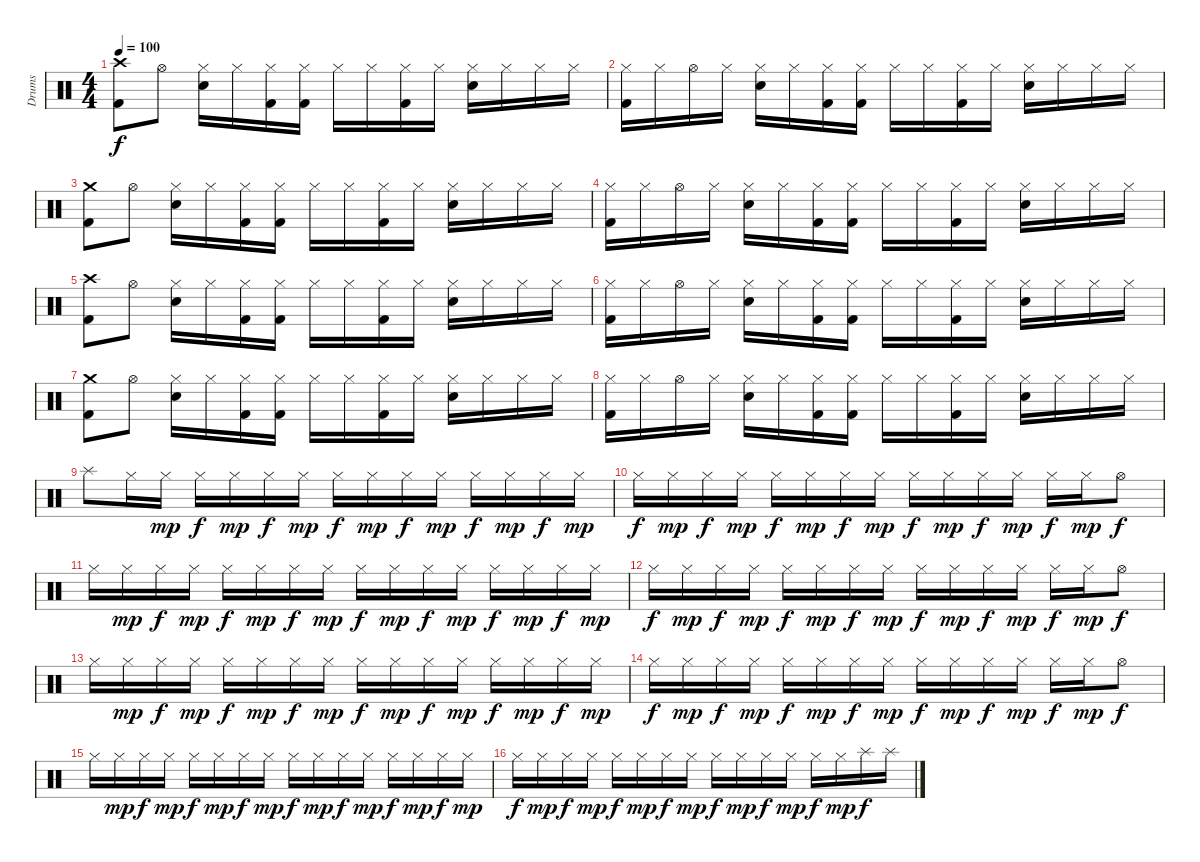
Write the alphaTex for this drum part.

\track ("Drums" "Drums") {instrument percussion}
\staff {score}
\articulation defaults
\ts (4 4)
\tempo 100
\clef neutral
\ks c
("Crash high (hit)" "Kick (hit) 2").8{dy f} "Hi-Hat (open)".8 ("Hi-Hat (closed)" "Snare (hit) 2").16 "Hi-Hat (closed)".16 ("Hi-Hat (closed)" "Kick (hit) 2").16 ("Hi-Hat (closed)" "Kick (hit) 2").16 "Hi-Hat (closed)".16 "Hi-Hat (closed)".16 ("Hi-Hat (closed)" "Kick (hit) 2").16 "Hi-Hat (closed)".16 ("Hi-Hat (closed)" "Snare (hit) 2").16 "Hi-Hat (closed)".16 "Hi-Hat (closed)".16 "Hi-Hat (closed)".16 |
("Hi-Hat (closed)" "Kick (hit) 2").16 "Hi-Hat (closed)".16 "Hi-Hat (open)".16 "Hi-Hat (closed)".16 ("Hi-Hat (closed)" "Snare (hit) 2").16 "Hi-Hat (closed)".16 ("Hi-Hat (closed)" "Kick (hit) 2").16 ("Hi-Hat (closed)" "Kick (hit) 2").16 "Hi-Hat (closed)".16 "Hi-Hat (closed)".16 ("Hi-Hat (closed)" "Kick (hit) 2").16 "Hi-Hat (closed)".16 ("Hi-Hat (closed)" "Snare (hit) 2").16 "Hi-Hat (closed)".16 "Hi-Hat (closed)".16 "Hi-Hat (closed)".16 |
("Crash medium (hit)" "Kick (hit) 2").8 "Hi-Hat (open)".8 ("Hi-Hat (closed)" "Snare (hit) 2").16 "Hi-Hat (closed)".16 ("Hi-Hat (closed)" "Kick (hit) 2").16 ("Hi-Hat (closed)" "Kick (hit) 2").16 "Hi-Hat (closed)".16 "Hi-Hat (closed)".16 ("Hi-Hat (closed)" "Kick (hit) 2").16 "Hi-Hat (closed)".16 ("Hi-Hat (closed)" "Snare (hit) 2").16 "Hi-Hat (closed)".16 "Hi-Hat (closed)".16 "Hi-Hat (closed)".16 |
("Hi-Hat (closed)" "Kick (hit) 2").16 "Hi-Hat (closed)".16 "Hi-Hat (open)".16 "Hi-Hat (closed)".16 ("Hi-Hat (closed)" "Snare (hit) 2").16 "Hi-Hat (closed)".16 ("Hi-Hat (closed)" "Kick (hit) 2").16 ("Hi-Hat (closed)" "Kick (hit) 2").16 "Hi-Hat (closed)".16 "Hi-Hat (closed)".16 ("Hi-Hat (closed)" "Kick (hit) 2").16 "Hi-Hat (closed)".16 ("Hi-Hat (closed)" "Snare (hit) 2").16 "Hi-Hat (closed)".16 "Hi-Hat (closed)".16 "Hi-Hat (closed)".16 |
("Crash high (hit)" "Kick (hit) 2").8 "Hi-Hat (open)".8 ("Hi-Hat (closed)" "Snare (hit) 2").16 "Hi-Hat (closed)".16 ("Hi-Hat (closed)" "Kick (hit) 2").16 ("Hi-Hat (closed)" "Kick (hit) 2").16 "Hi-Hat (closed)".16 "Hi-Hat (closed)".16 ("Hi-Hat (closed)" "Kick (hit) 2").16 "Hi-Hat (closed)".16 ("Hi-Hat (closed)" "Snare (hit) 2").16 "Hi-Hat (closed)".16 "Hi-Hat (closed)".16 "Hi-Hat (closed)".16 |
("Hi-Hat (closed)" "Kick (hit) 2").16 "Hi-Hat (closed)".16 "Hi-Hat (open)".16 "Hi-Hat (closed)".16 ("Hi-Hat (closed)" "Snare (hit) 2").16 "Hi-Hat (closed)".16 ("Hi-Hat (closed)" "Kick (hit) 2").16 ("Hi-Hat (closed)" "Kick (hit) 2").16 "Hi-Hat (closed)".16 "Hi-Hat (closed)".16 ("Hi-Hat (closed)" "Kick (hit) 2").16 "Hi-Hat (closed)".16 ("Hi-Hat (closed)" "Snare (hit) 2").16 "Hi-Hat (closed)".16 "Hi-Hat (closed)".16 "Hi-Hat (closed)".16 |
("Crash medium (hit)" "Kick (hit) 2").8 "Hi-Hat (open)".8 ("Hi-Hat (closed)" "Snare (hit) 2").16 "Hi-Hat (closed)".16 ("Hi-Hat (closed)" "Kick (hit) 2").16 ("Hi-Hat (closed)" "Kick (hit) 2").16 "Hi-Hat (closed)".16 "Hi-Hat (closed)".16 ("Hi-Hat (closed)" "Kick (hit) 2").16 "Hi-Hat (closed)".16 ("Hi-Hat (closed)" "Snare (hit) 2").16 "Hi-Hat (closed)".16 "Hi-Hat (closed)".16 "Hi-Hat (closed)".16 |
("Hi-Hat (closed)" "Kick (hit) 2").16 "Hi-Hat (closed)".16 "Hi-Hat (open)".16 "Hi-Hat (closed)".16 ("Hi-Hat (closed)" "Snare (hit) 2").16 "Hi-Hat (closed)".16 ("Hi-Hat (closed)" "Kick (hit) 2").16 ("Hi-Hat (closed)" "Kick (hit) 2").16 "Hi-Hat (closed)".16 "Hi-Hat (closed)".16 ("Hi-Hat (closed)" "Kick (hit) 2").16 "Hi-Hat (closed)".16 ("Hi-Hat (closed)" "Snare (hit) 2").16 "Hi-Hat (closed)".16 "Hi-Hat (closed)".16 "Hi-Hat (closed)".16 |
"Splash (hit)".8 "Hi-Hat (closed)".16 "Hi-Hat (closed)".16{dy mp} "Hi-Hat (closed)".16{dy f} "Hi-Hat (closed)".16{dy mp} "Hi-Hat (closed)".16{dy f} "Hi-Hat (closed)".16{dy mp} "Hi-Hat (closed)".16{dy f} "Hi-Hat (closed)".16{dy mp} "Hi-Hat (closed)".16{dy f} "Hi-Hat (closed)".16{dy mp} "Hi-Hat (closed)".16{dy f} "Hi-Hat (closed)".16{dy mp} "Hi-Hat (closed)".16{dy f} "Hi-Hat (closed)".16{dy mp} |
"Hi-Hat (closed)".16{dy f} "Hi-Hat (closed)".16{dy mp} "Hi-Hat (closed)".16{dy f} "Hi-Hat (closed)".16{dy mp} "Hi-Hat (closed)".16{dy f} "Hi-Hat (closed)".16{dy mp} "Hi-Hat (closed)".16{dy f} "Hi-Hat (closed)".16{dy mp} "Hi-Hat (closed)".16{dy f} "Hi-Hat (closed)".16{dy mp} "Hi-Hat (closed)".16{dy f} "Hi-Hat (closed)".16{dy mp} "Hi-Hat (closed)".16{dy f} "Hi-Hat (closed)".16{dy mp} "Hi-Hat (open)".8{dy f} |
"Hi-Hat (closed)".16 "Hi-Hat (closed)".16{dy mp} "Hi-Hat (closed)".16{dy f} "Hi-Hat (closed)".16{dy mp} "Hi-Hat (closed)".16{dy f} "Hi-Hat (closed)".16{dy mp} "Hi-Hat (closed)".16{dy f} "Hi-Hat (closed)".16{dy mp} "Hi-Hat (closed)".16{dy f} "Hi-Hat (closed)".16{dy mp} "Hi-Hat (closed)".16{dy f} "Hi-Hat (closed)".16{dy mp} "Hi-Hat (closed)".16{dy f} "Hi-Hat (closed)".16{dy mp} "Hi-Hat (closed)".16{dy f} "Hi-Hat (closed)".16{dy mp} |
"Hi-Hat (closed)".16{dy f} "Hi-Hat (closed)".16{dy mp} "Hi-Hat (closed)".16{dy f} "Hi-Hat (closed)".16{dy mp} "Hi-Hat (closed)".16{dy f} "Hi-Hat (closed)".16{dy mp} "Hi-Hat (closed)".16{dy f} "Hi-Hat (closed)".16{dy mp} "Hi-Hat (closed)".16{dy f} "Hi-Hat (closed)".16{dy mp} "Hi-Hat (closed)".16{dy f} "Hi-Hat (closed)".16{dy mp} "Hi-Hat (closed)".16{dy f} "Hi-Hat (closed)".16{dy mp} "Hi-Hat (open)".8{dy f} |
"Hi-Hat (closed)".16 "Hi-Hat (closed)".16{dy mp} "Hi-Hat (closed)".16{dy f} "Hi-Hat (closed)".16{dy mp} "Hi-Hat (closed)".16{dy f} "Hi-Hat (closed)".16{dy mp} "Hi-Hat (closed)".16{dy f} "Hi-Hat (closed)".16{dy mp} "Hi-Hat (closed)".16{dy f} "Hi-Hat (closed)".16{dy mp} "Hi-Hat (closed)".16{dy f} "Hi-Hat (closed)".16{dy mp} "Hi-Hat (closed)".16{dy f} "Hi-Hat (closed)".16{dy mp} "Hi-Hat (closed)".16{dy f} "Hi-Hat (closed)".16{dy mp} |
"Hi-Hat (closed)".16{dy f} "Hi-Hat (closed)".16{dy mp} "Hi-Hat (closed)".16{dy f} "Hi-Hat (closed)".16{dy mp} "Hi-Hat (closed)".16{dy f} "Hi-Hat (closed)".16{dy mp} "Hi-Hat (closed)".16{dy f} "Hi-Hat (closed)".16{dy mp} "Hi-Hat (closed)".16{dy f} "Hi-Hat (closed)".16{dy mp} "Hi-Hat (closed)".16{dy f} "Hi-Hat (closed)".16{dy mp} "Hi-Hat (closed)".16{dy f} "Hi-Hat (closed)".16{dy mp} "Hi-Hat (open)".8{dy f} |
"Hi-Hat (closed)".16 "Hi-Hat (closed)".16{dy mp} "Hi-Hat (closed)".16{dy f} "Hi-Hat (closed)".16{dy mp} "Hi-Hat (closed)".16{dy f} "Hi-Hat (closed)".16{dy mp} "Hi-Hat (closed)".16{dy f} "Hi-Hat (closed)".16{dy mp} "Hi-Hat (closed)".16{dy f} "Hi-Hat (closed)".16{dy mp} "Hi-Hat (closed)".16{dy f} "Hi-Hat (closed)".16{dy mp} "Hi-Hat (closed)".16{dy f} "Hi-Hat (closed)".16{dy mp} "Hi-Hat (closed)".16{dy f} "Hi-Hat (closed)".16{dy mp} |
"Hi-Hat (closed)".16{dy f} "Hi-Hat (closed)".16{dy mp} "Hi-Hat (closed)".16{dy f} "Hi-Hat (closed)".16{dy mp} "Hi-Hat (closed)".16{dy f} "Hi-Hat (closed)".16{dy mp} "Hi-Hat (closed)".16{dy f} "Hi-Hat (closed)".16{dy mp} "Hi-Hat (closed)".16{dy f} "Hi-Hat (closed)".16{dy mp} "Hi-Hat (closed)".16{dy f} "Hi-Hat (closed)".16{dy mp} "Hi-Hat (closed)".16{dy f} "Hi-Hat (closed)".16{dy mp} "Splash (hit)".16{dy f} "Splash (hit)".16
